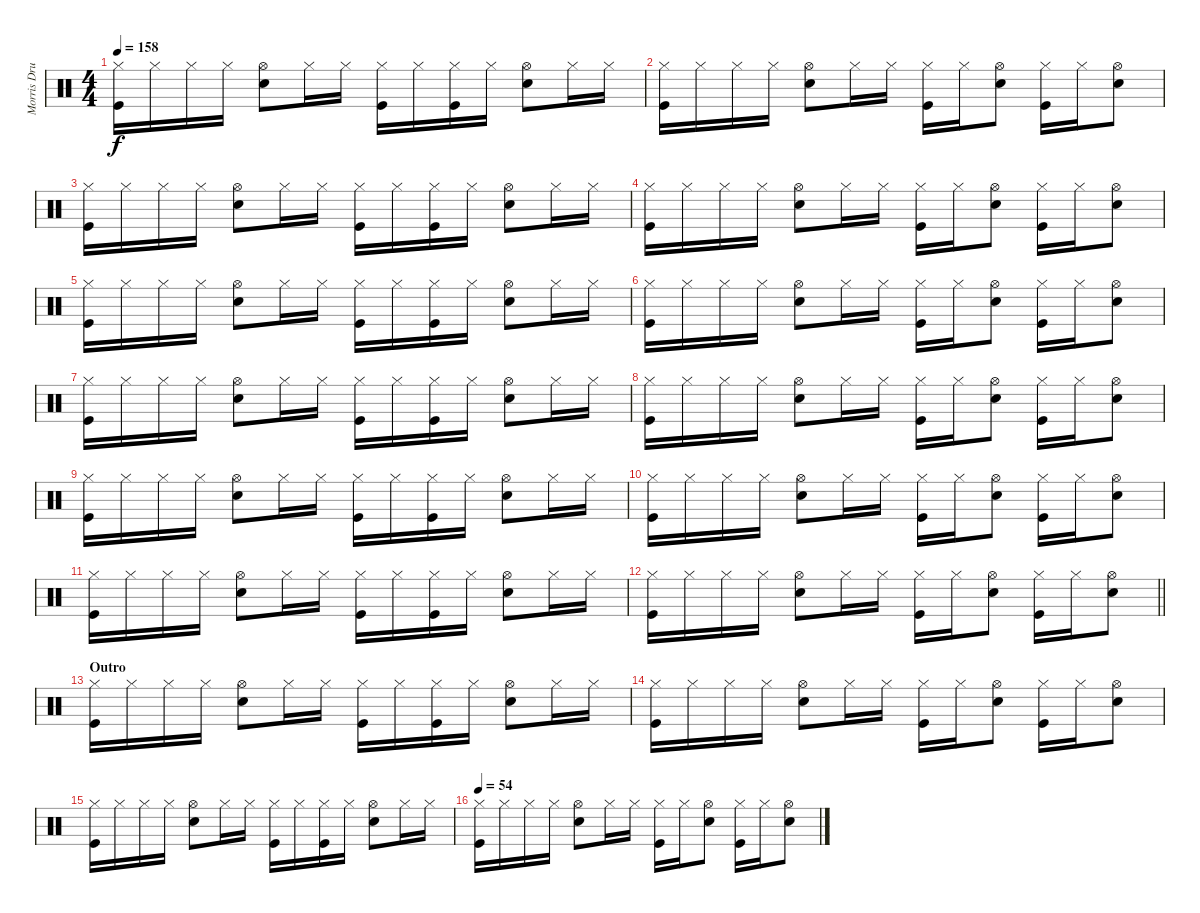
\track ("Morris Drums" "Morris Dru") {instrument percussion}
\staff {score}
\articulation defaults
\ts (4 4)
\tempo 158
\clef neutral
\ks c
("Hi-Hat (closed)" "Kick (hit)").16{dy f} "Hi-Hat (closed)".16 "Hi-Hat (closed)".16 "Hi-Hat (closed)".16 ("Hi-Hat (open)" "Snare (hit) 2").8 "Hi-Hat (closed)".16 "Hi-Hat (closed)".16 ("Hi-Hat (closed)" "Kick (hit)").16 "Hi-Hat (closed)".16 ("Hi-Hat (closed)" "Kick (hit)").16 "Hi-Hat (closed)".16 ("Hi-Hat (open)" "Snare (hit) 2").8 "Hi-Hat (closed)".16 "Hi-Hat (closed)".16 |
("Hi-Hat (closed)" "Kick (hit)").16 "Hi-Hat (closed)".16 "Hi-Hat (closed)".16 "Hi-Hat (closed)".16 ("Hi-Hat (open)" "Snare (hit) 2").8 "Hi-Hat (closed)".16 "Hi-Hat (closed)".16 ("Hi-Hat (closed)" "Kick (hit)").16 "Hi-Hat (closed)".16 ("Hi-Hat (open)" "Snare (hit) 2").8 ("Hi-Hat (closed)" "Kick (hit)").16 "Hi-Hat (closed)".16 ("Hi-Hat (open)" "Snare (hit) 2").8 |
("Hi-Hat (closed)" "Kick (hit)").16 "Hi-Hat (closed)".16 "Hi-Hat (closed)".16 "Hi-Hat (closed)".16 ("Hi-Hat (open)" "Snare (hit) 2").8 "Hi-Hat (closed)".16 "Hi-Hat (closed)".16 ("Hi-Hat (closed)" "Kick (hit)").16 "Hi-Hat (closed)".16 ("Hi-Hat (closed)" "Kick (hit)").16 "Hi-Hat (closed)".16 ("Hi-Hat (open)" "Snare (hit) 2").8 "Hi-Hat (closed)".16 "Hi-Hat (closed)".16 |
("Hi-Hat (closed)" "Kick (hit)").16 "Hi-Hat (closed)".16 "Hi-Hat (closed)".16 "Hi-Hat (closed)".16 ("Hi-Hat (open)" "Snare (hit) 2").8 "Hi-Hat (closed)".16 "Hi-Hat (closed)".16 ("Hi-Hat (closed)" "Kick (hit)").16 "Hi-Hat (closed)".16 ("Hi-Hat (open)" "Snare (hit) 2").8 ("Hi-Hat (closed)" "Kick (hit)").16 "Hi-Hat (closed)".16 ("Hi-Hat (open)" "Snare (hit) 2").8 |
("Hi-Hat (closed)" "Kick (hit)").16 "Hi-Hat (closed)".16 "Hi-Hat (closed)".16 "Hi-Hat (closed)".16 ("Hi-Hat (open)" "Snare (hit) 2").8 "Hi-Hat (closed)".16 "Hi-Hat (closed)".16 ("Hi-Hat (closed)" "Kick (hit)").16 "Hi-Hat (closed)".16 ("Hi-Hat (closed)" "Kick (hit)").16 "Hi-Hat (closed)".16 ("Hi-Hat (open)" "Snare (hit) 2").8 "Hi-Hat (closed)".16 "Hi-Hat (closed)".16 |
("Hi-Hat (closed)" "Kick (hit)").16 "Hi-Hat (closed)".16 "Hi-Hat (closed)".16 "Hi-Hat (closed)".16 ("Hi-Hat (open)" "Snare (hit) 2").8 "Hi-Hat (closed)".16 "Hi-Hat (closed)".16 ("Hi-Hat (closed)" "Kick (hit)").16 "Hi-Hat (closed)".16 ("Hi-Hat (open)" "Snare (hit) 2").8 ("Hi-Hat (closed)" "Kick (hit)").16 "Hi-Hat (closed)".16 ("Hi-Hat (open)" "Snare (hit) 2").8 |
("Hi-Hat (closed)" "Kick (hit)").16 "Hi-Hat (closed)".16 "Hi-Hat (closed)".16 "Hi-Hat (closed)".16 ("Hi-Hat (open)" "Snare (hit) 2").8 "Hi-Hat (closed)".16 "Hi-Hat (closed)".16 ("Hi-Hat (closed)" "Kick (hit)").16 "Hi-Hat (closed)".16 ("Hi-Hat (closed)" "Kick (hit)").16 "Hi-Hat (closed)".16 ("Hi-Hat (open)" "Snare (hit) 2").8 "Hi-Hat (closed)".16 "Hi-Hat (closed)".16 |
("Hi-Hat (closed)" "Kick (hit)").16 "Hi-Hat (closed)".16 "Hi-Hat (closed)".16 "Hi-Hat (closed)".16 ("Hi-Hat (open)" "Snare (hit) 2").8 "Hi-Hat (closed)".16 "Hi-Hat (closed)".16 ("Hi-Hat (closed)" "Kick (hit)").16 "Hi-Hat (closed)".16 ("Hi-Hat (open)" "Snare (hit) 2").8 ("Hi-Hat (closed)" "Kick (hit)").16 "Hi-Hat (closed)".16 ("Hi-Hat (open)" "Snare (hit) 2").8 |
("Hi-Hat (closed)" "Kick (hit)").16 "Hi-Hat (closed)".16 "Hi-Hat (closed)".16 "Hi-Hat (closed)".16 ("Hi-Hat (open)" "Snare (hit) 2").8 "Hi-Hat (closed)".16 "Hi-Hat (closed)".16 ("Hi-Hat (closed)" "Kick (hit)").16 "Hi-Hat (closed)".16 ("Hi-Hat (closed)" "Kick (hit)").16 "Hi-Hat (closed)".16 ("Hi-Hat (open)" "Snare (hit) 2").8 "Hi-Hat (closed)".16 "Hi-Hat (closed)".16 |
("Hi-Hat (closed)" "Kick (hit)").16 "Hi-Hat (closed)".16 "Hi-Hat (closed)".16 "Hi-Hat (closed)".16 ("Hi-Hat (open)" "Snare (hit) 2").8 "Hi-Hat (closed)".16 "Hi-Hat (closed)".16 ("Hi-Hat (closed)" "Kick (hit)").16 "Hi-Hat (closed)".16 ("Hi-Hat (open)" "Snare (hit) 2").8 ("Hi-Hat (closed)" "Kick (hit)").16 "Hi-Hat (closed)".16 ("Hi-Hat (open)" "Snare (hit) 2").8 |
("Hi-Hat (closed)" "Kick (hit)").16 "Hi-Hat (closed)".16 "Hi-Hat (closed)".16 "Hi-Hat (closed)".16 ("Hi-Hat (open)" "Snare (hit) 2").8 "Hi-Hat (closed)".16 "Hi-Hat (closed)".16 ("Hi-Hat (closed)" "Kick (hit)").16 "Hi-Hat (closed)".16 ("Hi-Hat (closed)" "Kick (hit)").16 "Hi-Hat (closed)".16 ("Hi-Hat (open)" "Snare (hit) 2").8 "Hi-Hat (closed)".16 "Hi-Hat (closed)".16 |
\barLineRight lightlight
("Hi-Hat (closed)" "Kick (hit)").16 "Hi-Hat (closed)".16 "Hi-Hat (closed)".16 "Hi-Hat (closed)".16 ("Hi-Hat (open)" "Snare (hit) 2").8 "Hi-Hat (closed)".16 "Hi-Hat (closed)".16 ("Hi-Hat (closed)" "Kick (hit)").16 "Hi-Hat (closed)".16 ("Hi-Hat (open)" "Snare (hit) 2").8 ("Hi-Hat (closed)" "Kick (hit)").16 "Hi-Hat (closed)".16 ("Hi-Hat (open)" "Snare (hit) 2").8 |
\section ("" "Outro")
("Hi-Hat (closed)" "Kick (hit)").16 "Hi-Hat (closed)".16 "Hi-Hat (closed)".16 "Hi-Hat (closed)".16 ("Hi-Hat (open)" "Snare (hit) 2").8 "Hi-Hat (closed)".16 "Hi-Hat (closed)".16 ("Hi-Hat (closed)" "Kick (hit)").16 "Hi-Hat (closed)".16 ("Hi-Hat (closed)" "Kick (hit)").16 "Hi-Hat (closed)".16 ("Hi-Hat (open)" "Snare (hit) 2").8 "Hi-Hat (closed)".16 "Hi-Hat (closed)".16 |
("Hi-Hat (closed)" "Kick (hit)").16 "Hi-Hat (closed)".16 "Hi-Hat (closed)".16 "Hi-Hat (closed)".16 ("Hi-Hat (open)" "Snare (hit) 2").8 "Hi-Hat (closed)".16 "Hi-Hat (closed)".16 ("Hi-Hat (closed)" "Kick (hit)").16 "Hi-Hat (closed)".16 ("Hi-Hat (open)" "Snare (hit) 2").8 ("Hi-Hat (closed)" "Kick (hit)").16 "Hi-Hat (closed)".16 ("Hi-Hat (open)" "Snare (hit) 2").8 |
("Hi-Hat (closed)" "Kick (hit)").16 "Hi-Hat (closed)".16 "Hi-Hat (closed)".16 "Hi-Hat (closed)".16 ("Hi-Hat (open)" "Snare (hit) 2").8 "Hi-Hat (closed)".16 "Hi-Hat (closed)".16 ("Hi-Hat (closed)" "Kick (hit)").16 "Hi-Hat (closed)".16 ("Hi-Hat (closed)" "Kick (hit)").16 "Hi-Hat (closed)".16 ("Hi-Hat (open)" "Snare (hit) 2").8 "Hi-Hat (closed)".16 "Hi-Hat (closed)".16 |
\tempo 54
("Hi-Hat (closed)" "Kick (hit)").16 "Hi-Hat (closed)".16 "Hi-Hat (closed)".16 "Hi-Hat (closed)".16 ("Hi-Hat (open)" "Snare (hit) 2").8 "Hi-Hat (closed)".16 "Hi-Hat (closed)".16 ("Hi-Hat (closed)" "Kick (hit)").16 "Hi-Hat (closed)".16 ("Hi-Hat (open)" "Snare (hit) 2").8 ("Hi-Hat (closed)" "Kick (hit)").16 "Hi-Hat (closed)".16 ("Hi-Hat (open)" "Snare (hit) 2").8
